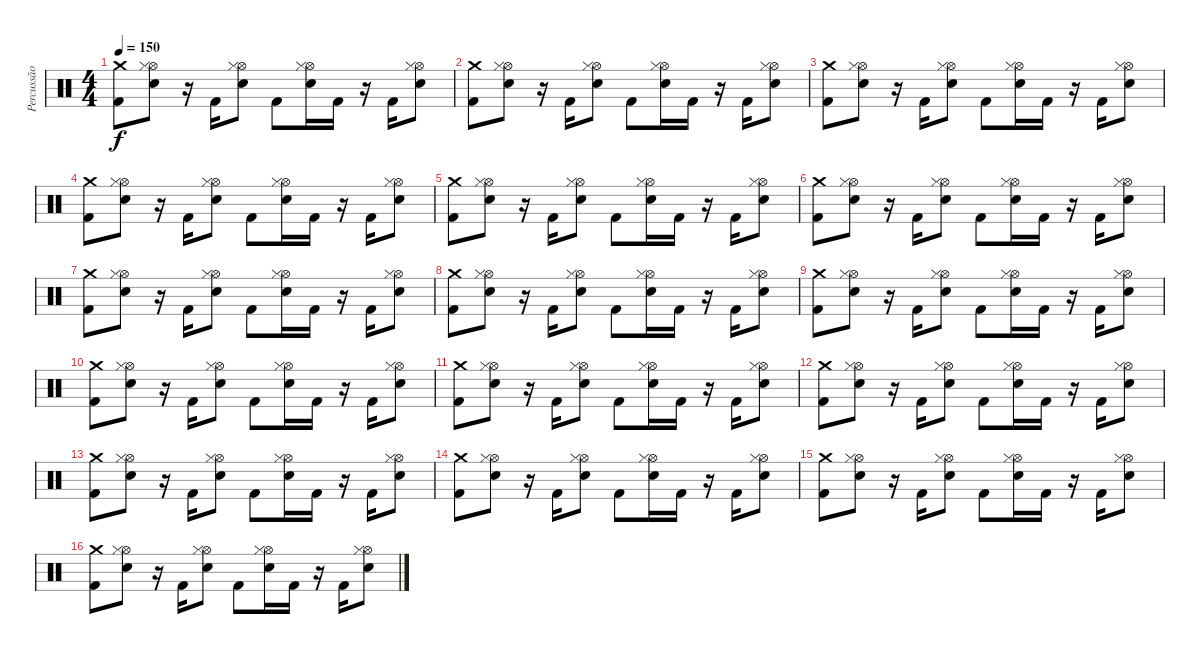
\track ("Percussão" "Percussão") {instrument percussion}
\staff {score}
\articulation defaults
\ts (4 4)
\tempo 150
\clef neutral
\ks c
("Crash medium (hit)" "Kick (hit) 2").8{dy f} ("Hi-Hat (open)" "Hi-Hat (closed)" "Snare (hit) 2").8 r.16 "Kick (hit) 2".16 ("Hi-Hat (open)" "Hi-Hat (closed)" "Snare (hit) 2").8 "Kick (hit) 2".8 ("Hi-Hat (open)" "Hi-Hat (closed)" "Snare (hit) 2").16 "Kick (hit) 2".16 r.16 "Kick (hit) 2".16 ("Hi-Hat (open)" "Hi-Hat (closed)" "Snare (hit) 2").8 |
("Crash medium (hit)" "Kick (hit) 2").8 ("Hi-Hat (open)" "Hi-Hat (closed)" "Snare (hit) 2").8 r.16 "Kick (hit) 2".16 ("Hi-Hat (open)" "Hi-Hat (closed)" "Snare (hit) 2").8 "Kick (hit) 2".8 ("Hi-Hat (open)" "Hi-Hat (closed)" "Snare (hit) 2").16 "Kick (hit) 2".16 r.16 "Kick (hit) 2".16 ("Hi-Hat (open)" "Hi-Hat (closed)" "Snare (hit) 2").8 |
("Crash medium (hit)" "Kick (hit) 2").8 ("Hi-Hat (open)" "Hi-Hat (closed)" "Snare (hit) 2").8 r.16 "Kick (hit) 2".16 ("Hi-Hat (open)" "Hi-Hat (closed)" "Snare (hit) 2").8 "Kick (hit) 2".8 ("Hi-Hat (open)" "Hi-Hat (closed)" "Snare (hit) 2").16 "Kick (hit) 2".16 r.16 "Kick (hit) 2".16 ("Hi-Hat (open)" "Hi-Hat (closed)" "Snare (hit) 2").8 |
("Crash medium (hit)" "Kick (hit) 2").8 ("Hi-Hat (open)" "Hi-Hat (closed)" "Snare (hit) 2").8 r.16 "Kick (hit) 2".16 ("Hi-Hat (open)" "Hi-Hat (closed)" "Snare (hit) 2").8 "Kick (hit) 2".8 ("Hi-Hat (open)" "Hi-Hat (closed)" "Snare (hit) 2").16 "Kick (hit) 2".16 r.16 "Kick (hit) 2".16 ("Hi-Hat (open)" "Hi-Hat (closed)" "Snare (hit) 2").8 |
("Crash medium (hit)" "Kick (hit) 2").8 ("Hi-Hat (open)" "Hi-Hat (closed)" "Snare (hit) 2").8 r.16 "Kick (hit) 2".16 ("Hi-Hat (open)" "Hi-Hat (closed)" "Snare (hit) 2").8 "Kick (hit) 2".8 ("Hi-Hat (open)" "Hi-Hat (closed)" "Snare (hit) 2").16 "Kick (hit) 2".16 r.16 "Kick (hit) 2".16 ("Hi-Hat (open)" "Hi-Hat (closed)" "Snare (hit) 2").8 |
("Crash medium (hit)" "Kick (hit) 2").8 ("Hi-Hat (open)" "Hi-Hat (closed)" "Snare (hit) 2").8 r.16 "Kick (hit) 2".16 ("Hi-Hat (open)" "Hi-Hat (closed)" "Snare (hit) 2").8 "Kick (hit) 2".8 ("Hi-Hat (open)" "Hi-Hat (closed)" "Snare (hit) 2").16 "Kick (hit) 2".16 r.16 "Kick (hit) 2".16 ("Hi-Hat (open)" "Hi-Hat (closed)" "Snare (hit) 2").8 |
("Crash medium (hit)" "Kick (hit) 2").8 ("Hi-Hat (open)" "Hi-Hat (closed)" "Snare (hit) 2").8 r.16 "Kick (hit) 2".16 ("Hi-Hat (open)" "Hi-Hat (closed)" "Snare (hit) 2").8 "Kick (hit) 2".8 ("Hi-Hat (open)" "Hi-Hat (closed)" "Snare (hit) 2").16 "Kick (hit) 2".16 r.16 "Kick (hit) 2".16 ("Hi-Hat (open)" "Hi-Hat (closed)" "Snare (hit) 2").8 |
("Crash medium (hit)" "Kick (hit) 2").8 ("Hi-Hat (open)" "Hi-Hat (closed)" "Snare (hit) 2").8 r.16 "Kick (hit) 2".16 ("Hi-Hat (open)" "Hi-Hat (closed)" "Snare (hit) 2").8 "Kick (hit) 2".8 ("Hi-Hat (open)" "Hi-Hat (closed)" "Snare (hit) 2").16 "Kick (hit) 2".16 r.16 "Kick (hit) 2".16 ("Hi-Hat (open)" "Hi-Hat (closed)" "Snare (hit) 2").8 |
("Crash medium (hit)" "Kick (hit) 2").8 ("Hi-Hat (open)" "Hi-Hat (closed)" "Snare (hit) 2").8 r.16 "Kick (hit) 2".16 ("Hi-Hat (open)" "Hi-Hat (closed)" "Snare (hit) 2").8 "Kick (hit) 2".8 ("Hi-Hat (open)" "Hi-Hat (closed)" "Snare (hit) 2").16 "Kick (hit) 2".16 r.16 "Kick (hit) 2".16 ("Hi-Hat (open)" "Hi-Hat (closed)" "Snare (hit) 2").8 |
("Crash medium (hit)" "Kick (hit) 2").8 ("Hi-Hat (open)" "Hi-Hat (closed)" "Snare (hit) 2").8 r.16 "Kick (hit) 2".16 ("Hi-Hat (open)" "Hi-Hat (closed)" "Snare (hit) 2").8 "Kick (hit) 2".8 ("Hi-Hat (open)" "Hi-Hat (closed)" "Snare (hit) 2").16 "Kick (hit) 2".16 r.16 "Kick (hit) 2".16 ("Hi-Hat (open)" "Hi-Hat (closed)" "Snare (hit) 2").8 |
("Crash medium (hit)" "Kick (hit) 2").8 ("Hi-Hat (open)" "Hi-Hat (closed)" "Snare (hit) 2").8 r.16 "Kick (hit) 2".16 ("Hi-Hat (open)" "Hi-Hat (closed)" "Snare (hit) 2").8 "Kick (hit) 2".8 ("Hi-Hat (open)" "Hi-Hat (closed)" "Snare (hit) 2").16 "Kick (hit) 2".16 r.16 "Kick (hit) 2".16 ("Hi-Hat (open)" "Hi-Hat (closed)" "Snare (hit) 2").8 |
("Crash medium (hit)" "Kick (hit) 2").8 ("Hi-Hat (open)" "Hi-Hat (closed)" "Snare (hit) 2").8 r.16 "Kick (hit) 2".16 ("Hi-Hat (open)" "Hi-Hat (closed)" "Snare (hit) 2").8 "Kick (hit) 2".8 ("Hi-Hat (open)" "Hi-Hat (closed)" "Snare (hit) 2").16 "Kick (hit) 2".16 r.16 "Kick (hit) 2".16 ("Hi-Hat (open)" "Hi-Hat (closed)" "Snare (hit) 2").8 |
("Crash medium (hit)" "Kick (hit) 2").8 ("Hi-Hat (open)" "Hi-Hat (closed)" "Snare (hit) 2").8 r.16 "Kick (hit) 2".16 ("Hi-Hat (open)" "Hi-Hat (closed)" "Snare (hit) 2").8 "Kick (hit) 2".8 ("Hi-Hat (open)" "Hi-Hat (closed)" "Snare (hit) 2").16 "Kick (hit) 2".16 r.16 "Kick (hit) 2".16 ("Hi-Hat (open)" "Hi-Hat (closed)" "Snare (hit) 2").8 |
("Crash medium (hit)" "Kick (hit) 2").8 ("Hi-Hat (open)" "Hi-Hat (closed)" "Snare (hit) 2").8 r.16 "Kick (hit) 2".16 ("Hi-Hat (open)" "Hi-Hat (closed)" "Snare (hit) 2").8 "Kick (hit) 2".8 ("Hi-Hat (open)" "Hi-Hat (closed)" "Snare (hit) 2").16 "Kick (hit) 2".16 r.16 "Kick (hit) 2".16 ("Hi-Hat (open)" "Hi-Hat (closed)" "Snare (hit) 2").8 |
("Crash medium (hit)" "Kick (hit) 2").8 ("Hi-Hat (open)" "Hi-Hat (closed)" "Snare (hit) 2").8 r.16 "Kick (hit) 2".16 ("Hi-Hat (open)" "Hi-Hat (closed)" "Snare (hit) 2").8 "Kick (hit) 2".8 ("Hi-Hat (open)" "Hi-Hat (closed)" "Snare (hit) 2").16 "Kick (hit) 2".16 r.16 "Kick (hit) 2".16 ("Hi-Hat (open)" "Hi-Hat (closed)" "Snare (hit) 2").8 |
("Crash medium (hit)" "Kick (hit) 2").8 ("Hi-Hat (open)" "Hi-Hat (closed)" "Snare (hit) 2").8 r.16 "Kick (hit) 2".16 ("Hi-Hat (open)" "Hi-Hat (closed)" "Snare (hit) 2").8 "Kick (hit) 2".8 ("Hi-Hat (open)" "Hi-Hat (closed)" "Snare (hit) 2").16 "Kick (hit) 2".16 r.16 "Kick (hit) 2".16 ("Hi-Hat (open)" "Hi-Hat (closed)" "Snare (hit) 2").8
